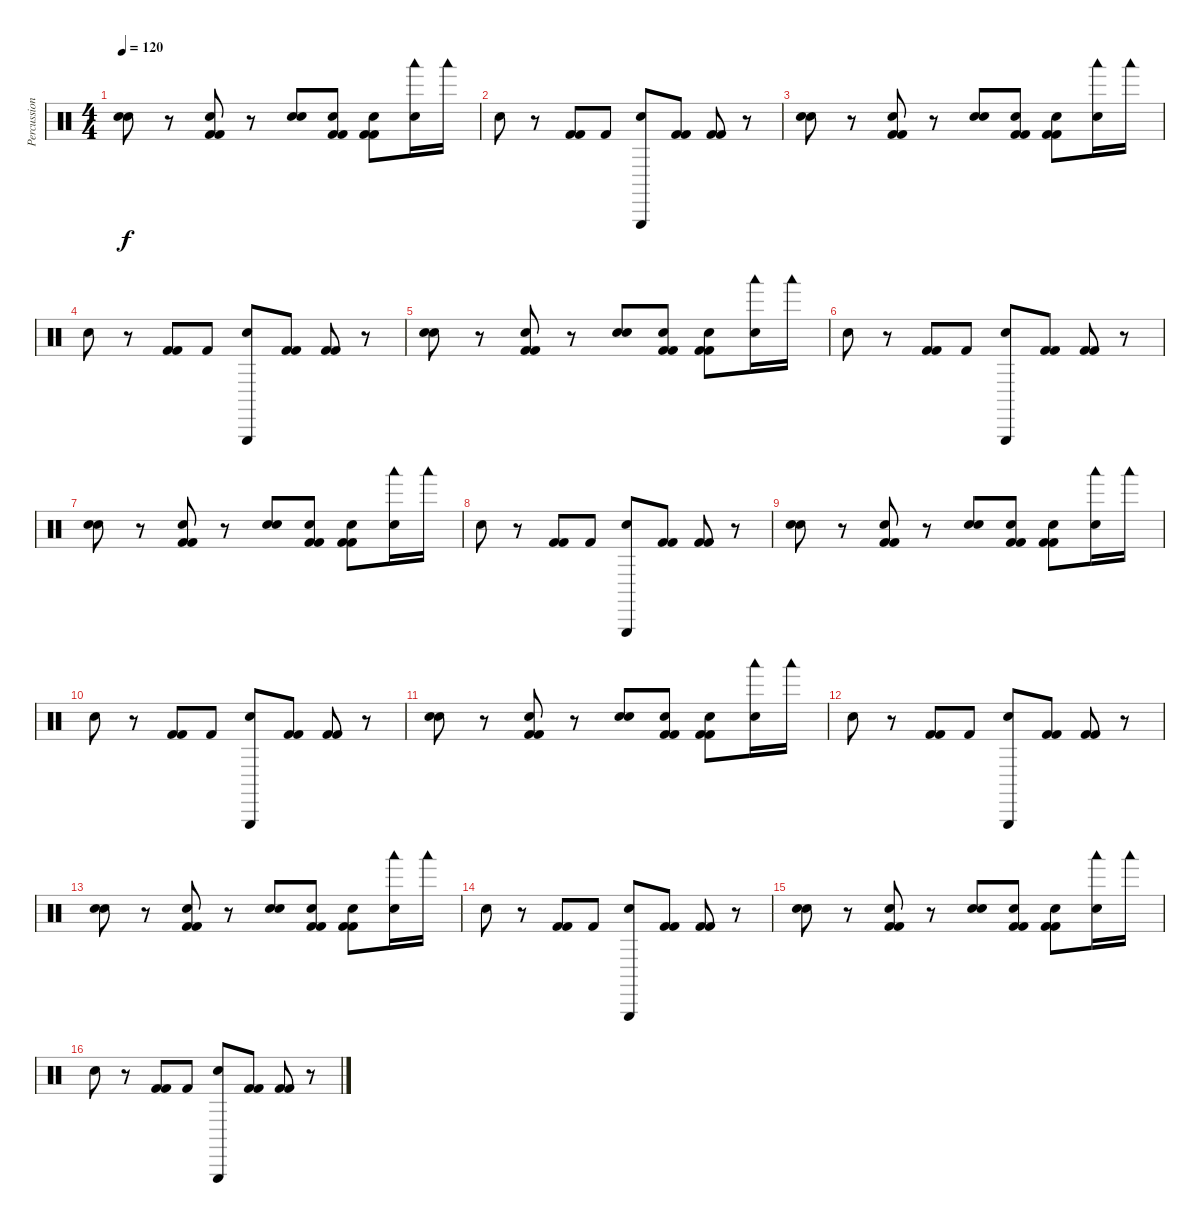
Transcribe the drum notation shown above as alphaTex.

\track ("Percussions" "Percussion") {instrument percussion}
\staff {score}
\articulation defaults
\ts (4 4)
\tempo 120
\clef neutral
\ks c
("Snare (hit) 2" "Metronome (bell)").8{dy f} r.8 ("Kick (hit) 2" "Metronome (bell)" "Kick (hit) 2").8 r.8 ("Snare (hit) 2" "Metronome (bell)").8 ("Kick (hit) 2" "Kick (hit) 2" "Metronome (bell)").8 ("Kick (hit) 2" "Kick (hit) 2" "Metronome (bell)").8 ("Woodblock low (hit)" "Metronome (bell)").16 "Woodblock low (hit)".16 |
"Snare (hit) 2".8 r.8 ("Kick (hit) 2" "Kick (hit) 2").8 "Kick (hit) 2".8 ("Snare (hit) 2" "Triangle (hit)").8 ("Kick (hit) 2" "Kick (hit) 2").8 ("Kick (hit) 2" "Kick (hit) 2").8 r.8 |
("Snare (hit) 2" "Metronome (bell)").8 r.8 ("Kick (hit) 2" "Metronome (bell)" "Kick (hit) 2").8 r.8 ("Snare (hit) 2" "Metronome (bell)").8 ("Kick (hit) 2" "Kick (hit) 2" "Metronome (bell)").8 ("Kick (hit) 2" "Kick (hit) 2" "Metronome (bell)").8 ("Woodblock low (hit)" "Metronome (bell)").16 "Woodblock low (hit)".16 |
"Snare (hit) 2".8 r.8 ("Kick (hit) 2" "Kick (hit) 2").8 "Kick (hit) 2".8 ("Snare (hit) 2" "Triangle (hit)").8 ("Kick (hit) 2" "Kick (hit) 2").8 ("Kick (hit) 2" "Kick (hit) 2").8 r.8 |
("Snare (hit) 2" "Metronome (bell)").8 r.8 ("Kick (hit) 2" "Metronome (bell)" "Kick (hit) 2").8 r.8 ("Snare (hit) 2" "Metronome (bell)").8 ("Kick (hit) 2" "Kick (hit) 2" "Metronome (bell)").8 ("Kick (hit) 2" "Kick (hit) 2" "Metronome (bell)").8 ("Woodblock low (hit)" "Metronome (bell)").16 "Woodblock low (hit)".16 |
"Snare (hit) 2".8 r.8 ("Kick (hit) 2" "Kick (hit) 2").8 "Kick (hit) 2".8 ("Snare (hit) 2" "Triangle (hit)").8 ("Kick (hit) 2" "Kick (hit) 2").8 ("Kick (hit) 2" "Kick (hit) 2").8 r.8 |
("Snare (hit) 2" "Metronome (bell)").8 r.8 ("Kick (hit) 2" "Metronome (bell)" "Kick (hit) 2").8 r.8 ("Snare (hit) 2" "Metronome (bell)").8 ("Kick (hit) 2" "Kick (hit) 2" "Metronome (bell)").8 ("Kick (hit) 2" "Kick (hit) 2" "Metronome (bell)").8 ("Woodblock low (hit)" "Metronome (bell)").16 "Woodblock low (hit)".16 |
"Snare (hit) 2".8 r.8 ("Kick (hit) 2" "Kick (hit) 2").8 "Kick (hit) 2".8 ("Snare (hit) 2" "Triangle (hit)").8 ("Kick (hit) 2" "Kick (hit) 2").8 ("Kick (hit) 2" "Kick (hit) 2").8 r.8 |
("Snare (hit) 2" "Metronome (bell)").8 r.8 ("Kick (hit) 2" "Metronome (bell)" "Kick (hit) 2").8 r.8 ("Snare (hit) 2" "Metronome (bell)").8 ("Kick (hit) 2" "Kick (hit) 2" "Metronome (bell)").8 ("Kick (hit) 2" "Kick (hit) 2" "Metronome (bell)").8 ("Woodblock low (hit)" "Metronome (bell)").16 "Woodblock low (hit)".16 |
"Snare (hit) 2".8 r.8 ("Kick (hit) 2" "Kick (hit) 2").8 "Kick (hit) 2".8 ("Snare (hit) 2" "Triangle (hit)").8 ("Kick (hit) 2" "Kick (hit) 2").8 ("Kick (hit) 2" "Kick (hit) 2").8 r.8 |
("Snare (hit) 2" "Metronome (bell)").8 r.8 ("Kick (hit) 2" "Metronome (bell)" "Kick (hit) 2").8 r.8 ("Snare (hit) 2" "Metronome (bell)").8 ("Kick (hit) 2" "Kick (hit) 2" "Metronome (bell)").8 ("Kick (hit) 2" "Kick (hit) 2" "Metronome (bell)").8 ("Woodblock low (hit)" "Metronome (bell)").16 "Woodblock low (hit)".16 |
"Snare (hit) 2".8 r.8 ("Kick (hit) 2" "Kick (hit) 2").8 "Kick (hit) 2".8 ("Snare (hit) 2" "Triangle (hit)").8 ("Kick (hit) 2" "Kick (hit) 2").8 ("Kick (hit) 2" "Kick (hit) 2").8 r.8 |
("Snare (hit) 2" "Metronome (bell)").8 r.8 ("Kick (hit) 2" "Metronome (bell)" "Kick (hit) 2").8 r.8 ("Snare (hit) 2" "Metronome (bell)").8 ("Kick (hit) 2" "Kick (hit) 2" "Metronome (bell)").8 ("Kick (hit) 2" "Kick (hit) 2" "Metronome (bell)").8 ("Woodblock low (hit)" "Metronome (bell)").16 "Woodblock low (hit)".16 |
"Snare (hit) 2".8 r.8 ("Kick (hit) 2" "Kick (hit) 2").8 "Kick (hit) 2".8 ("Snare (hit) 2" "Triangle (hit)").8 ("Kick (hit) 2" "Kick (hit) 2").8 ("Kick (hit) 2" "Kick (hit) 2").8 r.8 |
("Snare (hit) 2" "Metronome (bell)").8 r.8 ("Kick (hit) 2" "Metronome (bell)" "Kick (hit) 2").8 r.8 ("Snare (hit) 2" "Metronome (bell)").8 ("Kick (hit) 2" "Kick (hit) 2" "Metronome (bell)").8 ("Kick (hit) 2" "Kick (hit) 2" "Metronome (bell)").8 ("Woodblock low (hit)" "Metronome (bell)").16 "Woodblock low (hit)".16 |
"Snare (hit) 2".8 r.8 ("Kick (hit) 2" "Kick (hit) 2").8 "Kick (hit) 2".8 ("Snare (hit) 2" "Triangle (hit)").8 ("Kick (hit) 2" "Kick (hit) 2").8 ("Kick (hit) 2" "Kick (hit) 2").8 r.8
